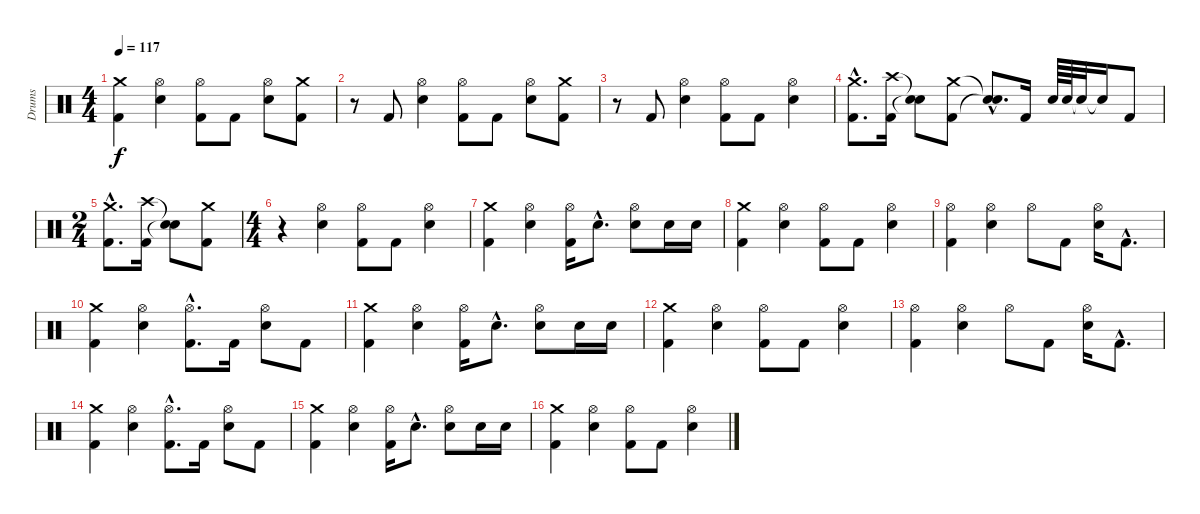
\track ("Drums" "Drums") {instrument percussion}
\staff {score}
\articulation defaults
\ts (4 4)
\tempo 117
\clef neutral
\ks c
("Crash medium (hit)" "Kick (hit) 2").4{dy f} ("Hi-Hat (open)" "Snare (hit) 2").4 ("Hi-Hat (open)" "Kick (hit) 2").8 "Kick (hit) 2".8 ("Hi-Hat (open)" "Snare (hit) 2").8 ("Crash medium (hit)" "Kick (hit) 2").8 |
r.8 "Kick (hit) 2".8 ("Hi-Hat (open)" "Snare (hit) 2").4 ("Hi-Hat (open)" "Kick (hit) 2").8 "Kick (hit) 2".8 ("Hi-Hat (open)" "Snare (hit) 2").8 ("Crash medium (hit)" "Kick (hit) 2").8 |
r.8 "Kick (hit) 2".8 ("Hi-Hat (open)" "Snare (hit) 2").4 ("Hi-Hat (open)" "Kick (hit) 2").8 "Kick (hit) 2".8 ("Hi-Hat (open)" "Snare (hit) 2").4 |
("Crash medium (hit)"{hac} "Kick (hit) 2"{hac}).8{d} ("Crash high (hit)" "Kick (hit) 2").16 ("Snare (hit)"{t} "Snare (hit)"{t}).8 ("Crash medium (hit)" "Kick (hit) 2").8 ("Snare (hit)"{hac t} "Snare (hit)"{hac t}).8{d} "Kick (hit) 2".16 "Snare (hit) 2".64 "Snare (hit) 2".64 "Snare (hit)"{t}.32 "Snare (hit)"{t}.16 "Kick (hit) 2".8 |
\ts (2 4)
("Crash medium (hit)"{hac} "Kick (hit) 2"{hac}).8{d} ("Crash high (hit)" "Kick (hit) 2").16 ("Snare (hit)"{t} "Snare (hit)"{t}).8 ("Crash medium (hit)" "Kick (hit) 2").8 |
\ts (4 4)
r.4 ("Hi-Hat (open)" "Snare (hit) 2").4 ("Hi-Hat (open)" "Kick (hit) 2").8 "Kick (hit) 2".8 ("Hi-Hat (open)" "Snare (hit) 2").4 |
("Crash medium (hit)" "Kick (hit) 2").4 ("Hi-Hat (open)" "Snare (hit) 2").4 ("Hi-Hat (open)" "Kick (hit) 2").16 "Snare (hit) 2"{hac}.8{d} ("Hi-Hat (open)" "Snare (hit) 2").8 "Snare (hit) 2".16 "Snare (hit) 2".16 |
("Crash medium (hit)" "Kick (hit) 2").4 ("Hi-Hat (open)" "Snare (hit) 2").4 ("Hi-Hat (open)" "Kick (hit) 2").8 "Kick (hit) 2".8 ("Hi-Hat (open)" "Snare (hit) 2").4 |
("Hi-Hat (open)" "Kick (hit) 2").4 ("Hi-Hat (open)" "Snare (hit) 2").4 "Hi-Hat (open)".8 "Kick (hit) 2".8 ("Hi-Hat (open)" "Snare (hit) 2").16 "Kick (hit) 2"{hac}.8{d} |
("Crash medium (hit)" "Kick (hit) 2").4 ("Hi-Hat (open)" "Snare (hit) 2").4 ("Hi-Hat (open)"{hac} "Kick (hit) 2"{hac}).8{d} "Kick (hit) 2".16 ("Hi-Hat (open)" "Snare (hit) 2").8 "Kick (hit) 2".8 |
("Crash medium (hit)" "Kick (hit) 2").4 ("Hi-Hat (open)" "Snare (hit) 2").4 ("Hi-Hat (open)" "Kick (hit) 2").16 "Snare (hit) 2"{hac}.8{d} ("Hi-Hat (open)" "Snare (hit) 2").8 "Snare (hit) 2".16 "Snare (hit) 2".16 |
("Crash medium (hit)" "Kick (hit) 2").4 ("Hi-Hat (open)" "Snare (hit) 2").4 ("Hi-Hat (open)" "Kick (hit) 2").8 "Kick (hit) 2".8 ("Hi-Hat (open)" "Snare (hit) 2").4 |
("Hi-Hat (open)" "Kick (hit) 2").4 ("Hi-Hat (open)" "Snare (hit) 2").4 "Hi-Hat (open)".8 "Kick (hit) 2".8 ("Hi-Hat (open)" "Snare (hit) 2").16 "Kick (hit) 2"{hac}.8{d} |
("Crash medium (hit)" "Kick (hit) 2").4 ("Hi-Hat (open)" "Snare (hit) 2").4 ("Hi-Hat (open)"{hac} "Kick (hit) 2"{hac}).8{d} "Kick (hit) 2".16 ("Hi-Hat (open)" "Snare (hit) 2").8 "Kick (hit) 2".8 |
("Crash medium (hit)" "Kick (hit) 2").4 ("Hi-Hat (open)" "Snare (hit) 2").4 ("Hi-Hat (open)" "Kick (hit) 2").16 "Snare (hit) 2"{hac}.8{d} ("Hi-Hat (open)" "Snare (hit) 2").8 "Snare (hit) 2".16 "Snare (hit) 2".16 |
("Crash medium (hit)" "Kick (hit) 2").4 ("Hi-Hat (open)" "Snare (hit) 2").4 ("Hi-Hat (open)" "Kick (hit) 2").8 "Kick (hit) 2".8 ("Hi-Hat (open)" "Snare (hit) 2").4
